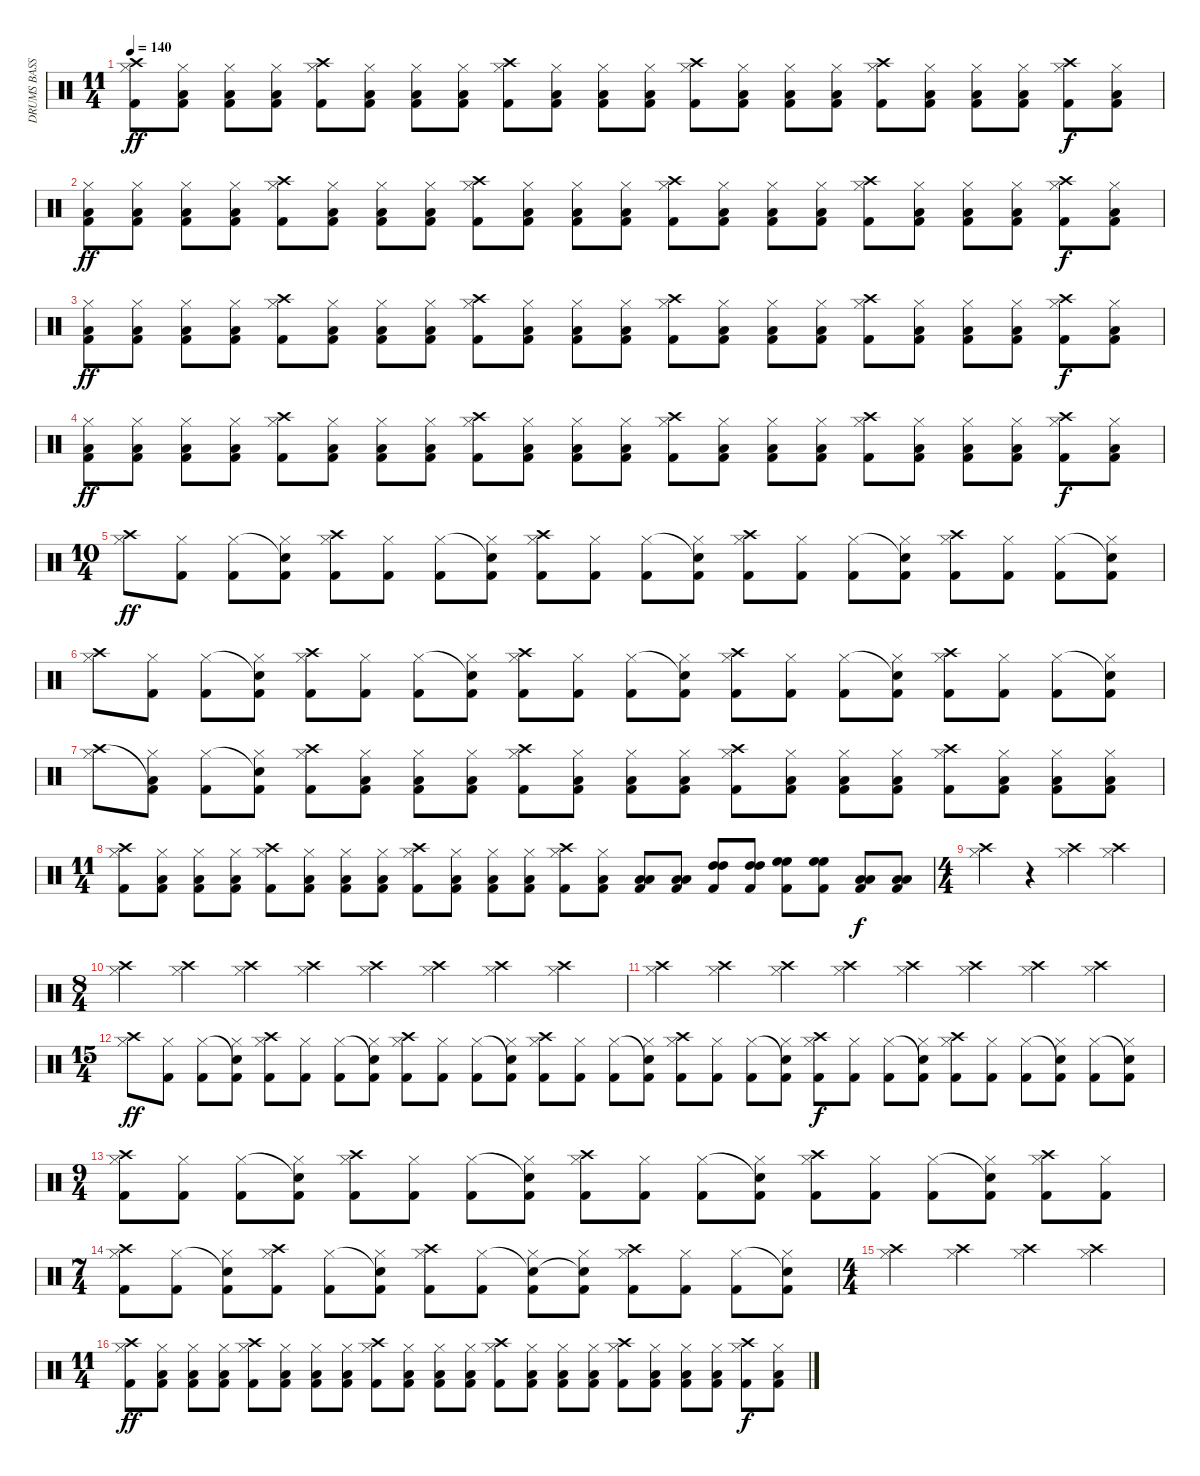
\track ("DRUMS BASS" "DRUMS BASS") {instrument percussion}
\staff {score}
\articulation defaults
\ts (11 4)
\tempo 140
\clef neutral
\ks c
("Crash high (hit)" "Hi-Hat (closed)" "Kick (hit) 2").8{dy ff} ("Low Tom (hit)" "Hi-Hat (closed)" "Kick (hit) 2").8 ("Low Tom (hit)" "Hi-Hat (closed)" "Kick (hit) 2").8 ("Low Tom (hit)" "Hi-Hat (closed)" "Kick (hit) 2").8 ("Crash high (hit)" "Hi-Hat (closed)" "Kick (hit) 2").8 ("Low Tom (hit)" "Hi-Hat (closed)" "Kick (hit) 2").8 ("Low Tom (hit)" "Hi-Hat (closed)" "Kick (hit) 2").8 ("Low Tom (hit)" "Hi-Hat (closed)" "Kick (hit) 2").8 ("Crash high (hit)" "Hi-Hat (closed)" "Kick (hit) 2").8 ("Low Tom (hit)" "Hi-Hat (closed)" "Kick (hit) 2").8 ("Low Tom (hit)" "Hi-Hat (closed)" "Kick (hit) 2").8 ("Low Tom (hit)" "Hi-Hat (closed)" "Kick (hit) 2").8 ("Crash high (hit)" "Hi-Hat (closed)" "Kick (hit) 2").8 ("Low Tom (hit)" "Hi-Hat (closed)" "Kick (hit) 2").8 ("Low Tom (hit)" "Hi-Hat (closed)" "Kick (hit) 2").8 ("Low Tom (hit)" "Hi-Hat (closed)" "Kick (hit) 2").8 ("Crash high (hit)" "Hi-Hat (closed)" "Kick (hit) 2").8 ("Low Tom (hit)" "Hi-Hat (closed)" "Kick (hit) 2").8 ("Low Tom (hit)" "Hi-Hat (closed)" "Kick (hit) 2").8 ("Low Tom (hit)" "Hi-Hat (closed)" "Kick (hit) 2").8 ("Crash high (hit)" "Hi-Hat (closed)" "Kick (hit) 2").8{dy f} ("Low Tom (hit)" "Hi-Hat (closed)" "Kick (hit) 2").8 |
("Low Tom (hit)" "Hi-Hat (closed)" "Kick (hit) 2").8{dy ff} ("Low Tom (hit)" "Hi-Hat (closed)" "Kick (hit) 2").8 ("Low Tom (hit)" "Hi-Hat (closed)" "Kick (hit) 2").8 ("Low Tom (hit)" "Hi-Hat (closed)" "Kick (hit) 2").8 ("Crash high (hit)" "Hi-Hat (closed)" "Kick (hit) 2").8 ("Low Tom (hit)" "Hi-Hat (closed)" "Kick (hit) 2").8 ("Low Tom (hit)" "Hi-Hat (closed)" "Kick (hit) 2").8 ("Low Tom (hit)" "Hi-Hat (closed)" "Kick (hit) 2").8 ("Crash high (hit)" "Hi-Hat (closed)" "Kick (hit) 2").8 ("Low Tom (hit)" "Hi-Hat (closed)" "Kick (hit) 2").8 ("Low Tom (hit)" "Hi-Hat (closed)" "Kick (hit) 2").8 ("Low Tom (hit)" "Hi-Hat (closed)" "Kick (hit) 2").8 ("Crash high (hit)" "Hi-Hat (closed)" "Kick (hit) 2").8 ("Low Tom (hit)" "Hi-Hat (closed)" "Kick (hit) 2").8 ("Low Tom (hit)" "Hi-Hat (closed)" "Kick (hit) 2").8 ("Low Tom (hit)" "Hi-Hat (closed)" "Kick (hit) 2").8 ("Crash high (hit)" "Hi-Hat (closed)" "Kick (hit) 2").8 ("Low Tom (hit)" "Hi-Hat (closed)" "Kick (hit) 2").8 ("Low Tom (hit)" "Hi-Hat (closed)" "Kick (hit) 2").8 ("Low Tom (hit)" "Hi-Hat (closed)" "Kick (hit) 2").8 ("Crash high (hit)" "Hi-Hat (closed)" "Kick (hit) 2").8{dy f} ("Low Tom (hit)" "Hi-Hat (closed)" "Kick (hit) 2").8 |
("Low Tom (hit)" "Hi-Hat (closed)" "Kick (hit) 2").8{dy ff} ("Low Tom (hit)" "Hi-Hat (closed)" "Kick (hit) 2").8 ("Low Tom (hit)" "Hi-Hat (closed)" "Kick (hit) 2").8 ("Low Tom (hit)" "Hi-Hat (closed)" "Kick (hit) 2").8 ("Crash high (hit)" "Hi-Hat (closed)" "Kick (hit) 2").8 ("Low Tom (hit)" "Hi-Hat (closed)" "Kick (hit) 2").8 ("Low Tom (hit)" "Hi-Hat (closed)" "Kick (hit) 2").8 ("Low Tom (hit)" "Hi-Hat (closed)" "Kick (hit) 2").8 ("Crash high (hit)" "Hi-Hat (closed)" "Kick (hit) 2").8 ("Low Tom (hit)" "Hi-Hat (closed)" "Kick (hit) 2").8 ("Low Tom (hit)" "Hi-Hat (closed)" "Kick (hit) 2").8 ("Low Tom (hit)" "Hi-Hat (closed)" "Kick (hit) 2").8 ("Crash high (hit)" "Hi-Hat (closed)" "Kick (hit) 2").8 ("Low Tom (hit)" "Hi-Hat (closed)" "Kick (hit) 2").8 ("Low Tom (hit)" "Hi-Hat (closed)" "Kick (hit) 2").8 ("Low Tom (hit)" "Hi-Hat (closed)" "Kick (hit) 2").8 ("Crash high (hit)" "Hi-Hat (closed)" "Kick (hit) 2").8 ("Low Tom (hit)" "Hi-Hat (closed)" "Kick (hit) 2").8 ("Low Tom (hit)" "Hi-Hat (closed)" "Kick (hit) 2").8 ("Low Tom (hit)" "Hi-Hat (closed)" "Kick (hit) 2").8 ("Crash high (hit)" "Hi-Hat (closed)" "Kick (hit) 2").8{dy f} ("Low Tom (hit)" "Hi-Hat (closed)" "Kick (hit) 2").8 |
("Low Tom (hit)" "Hi-Hat (closed)" "Kick (hit) 2").8{dy ff} ("Low Tom (hit)" "Hi-Hat (closed)" "Kick (hit) 2").8 ("Low Tom (hit)" "Hi-Hat (closed)" "Kick (hit) 2").8 ("Low Tom (hit)" "Hi-Hat (closed)" "Kick (hit) 2").8 ("Crash high (hit)" "Hi-Hat (closed)" "Kick (hit) 2").8 ("Low Tom (hit)" "Hi-Hat (closed)" "Kick (hit) 2").8 ("Low Tom (hit)" "Hi-Hat (closed)" "Kick (hit) 2").8 ("Low Tom (hit)" "Hi-Hat (closed)" "Kick (hit) 2").8 ("Crash high (hit)" "Hi-Hat (closed)" "Kick (hit) 2").8 ("Low Tom (hit)" "Hi-Hat (closed)" "Kick (hit) 2").8 ("Low Tom (hit)" "Hi-Hat (closed)" "Kick (hit) 2").8 ("Low Tom (hit)" "Hi-Hat (closed)" "Kick (hit) 2").8 ("Crash high (hit)" "Hi-Hat (closed)" "Kick (hit) 2").8 ("Low Tom (hit)" "Hi-Hat (closed)" "Kick (hit) 2").8 ("Low Tom (hit)" "Hi-Hat (closed)" "Kick (hit) 2").8 ("Low Tom (hit)" "Hi-Hat (closed)" "Kick (hit) 2").8 ("Crash high (hit)" "Hi-Hat (closed)" "Kick (hit) 2").8 ("Low Tom (hit)" "Hi-Hat (closed)" "Kick (hit) 2").8 ("Low Tom (hit)" "Hi-Hat (closed)" "Kick (hit) 2").8 ("Low Tom (hit)" "Hi-Hat (closed)" "Kick (hit) 2").8 ("Crash high (hit)" "Hi-Hat (closed)" "Kick (hit) 2").8{dy f} ("Low Tom (hit)" "Hi-Hat (closed)" "Kick (hit) 2").8 |
\ts (10 4)
("Crash high (hit)" "Hi-Hat (closed)").8{dy ff} ("Hi-Hat (closed)" "Kick (hit) 2").8 ("Hi-Hat (closed)" "Kick (hit) 2").8 ("Snare (hit)"{t} "Hi-Hat (closed)" "Kick (hit) 2").8 ("Crash high (hit)" "Hi-Hat (closed)" "Kick (hit) 2").8 ("Hi-Hat (closed)" "Kick (hit) 2").8 ("Hi-Hat (closed)" "Kick (hit) 2").8 ("Snare (hit)"{t} "Hi-Hat (closed)" "Kick (hit) 2").8 ("Crash high (hit)" "Hi-Hat (closed)" "Kick (hit) 2").8 ("Hi-Hat (closed)" "Kick (hit) 2").8 ("Hi-Hat (closed)" "Kick (hit) 2").8 ("Snare (hit)"{t} "Hi-Hat (closed)" "Kick (hit) 2").8 ("Crash high (hit)" "Hi-Hat (closed)" "Kick (hit) 2").8 ("Hi-Hat (closed)" "Kick (hit) 2").8 ("Hi-Hat (closed)" "Kick (hit) 2").8 ("Snare (hit)"{t} "Hi-Hat (closed)" "Kick (hit) 2").8 ("Crash high (hit)" "Hi-Hat (closed)" "Kick (hit) 2").8 ("Hi-Hat (closed)" "Kick (hit) 2").8 ("Hi-Hat (closed)" "Kick (hit) 2").8 ("Snare (hit)"{t} "Hi-Hat (closed)" "Kick (hit) 2").8 |
("Crash high (hit)" "Hi-Hat (closed)").8 ("Hi-Hat (closed)" "Kick (hit) 2").8 ("Hi-Hat (closed)" "Kick (hit) 2").8 ("Snare (hit)"{t} "Hi-Hat (closed)" "Kick (hit) 2").8 ("Crash high (hit)" "Hi-Hat (closed)" "Kick (hit) 2").8 ("Hi-Hat (closed)" "Kick (hit) 2").8 ("Hi-Hat (closed)" "Kick (hit) 2").8 ("Snare (hit)"{t} "Hi-Hat (closed)" "Kick (hit) 2").8 ("Crash high (hit)" "Hi-Hat (closed)" "Kick (hit) 2").8 ("Hi-Hat (closed)" "Kick (hit) 2").8 ("Hi-Hat (closed)" "Kick (hit) 2").8 ("Snare (hit)"{t} "Hi-Hat (closed)" "Kick (hit) 2").8 ("Crash high (hit)" "Hi-Hat (closed)" "Kick (hit) 2").8 ("Hi-Hat (closed)" "Kick (hit) 2").8 ("Hi-Hat (closed)" "Kick (hit) 2").8 ("Snare (hit)"{t} "Hi-Hat (closed)" "Kick (hit) 2").8 ("Crash high (hit)" "Hi-Hat (closed)" "Kick (hit) 2").8 ("Hi-Hat (closed)" "Kick (hit) 2").8 ("Hi-Hat (closed)" "Kick (hit) 2").8 ("Snare (hit)"{t} "Hi-Hat (closed)" "Kick (hit) 2").8 |
("Crash high (hit)" "Hi-Hat (closed)").8 ("Low Tom (hit)"{t} "Hi-Hat (closed)" "Kick (hit) 2").8 ("Hi-Hat (closed)" "Kick (hit) 2").8 ("Snare (hit)"{t} "Hi-Hat (closed)" "Kick (hit) 2").8 ("Crash high (hit)" "Hi-Hat (closed)" "Kick (hit) 2").8 ("Low Tom (hit)" "Hi-Hat (closed)" "Kick (hit) 2").8 ("Low Tom (hit)" "Hi-Hat (closed)" "Kick (hit) 2").8 ("Low Tom (hit)" "Hi-Hat (closed)" "Kick (hit) 2").8 ("Crash high (hit)" "Hi-Hat (closed)" "Kick (hit) 2").8 ("Low Tom (hit)" "Hi-Hat (closed)" "Kick (hit) 2").8 ("Low Tom (hit)" "Hi-Hat (closed)" "Kick (hit) 2").8 ("Low Tom (hit)" "Hi-Hat (closed)" "Kick (hit) 2").8 ("Crash high (hit)" "Hi-Hat (closed)" "Kick (hit) 2").8 ("Low Tom (hit)" "Hi-Hat (closed)" "Kick (hit) 2").8 ("Low Tom (hit)" "Hi-Hat (closed)" "Kick (hit) 2").8 ("Low Tom (hit)" "Hi-Hat (closed)" "Kick (hit) 2").8 ("Crash high (hit)" "Hi-Hat (closed)" "Kick (hit) 2").8 ("Low Tom (hit)" "Hi-Hat (closed)" "Kick (hit) 2").8 ("Low Tom (hit)" "Hi-Hat (closed)" "Kick (hit) 2").8 ("Low Tom (hit)" "Hi-Hat (closed)" "Kick (hit) 2").8 |
\ts (11 4)
("Crash high (hit)" "Hi-Hat (closed)" "Kick (hit) 2").8 ("Low Tom (hit)" "Hi-Hat (closed)" "Kick (hit) 2").8 ("Low Tom (hit)" "Hi-Hat (closed)" "Kick (hit) 2").8 ("Low Tom (hit)" "Hi-Hat (closed)" "Kick (hit) 2").8 ("Crash high (hit)" "Hi-Hat (closed)" "Kick (hit) 2").8 ("Low Tom (hit)" "Hi-Hat (closed)" "Kick (hit) 2").8 ("Low Tom (hit)" "Hi-Hat (closed)" "Kick (hit) 2").8 ("Low Tom (hit)" "Hi-Hat (closed)" "Kick (hit) 2").8 ("Crash high (hit)" "Hi-Hat (closed)" "Kick (hit) 2").8 ("Low Tom (hit)" "Hi-Hat (closed)" "Kick (hit) 2").8 ("Low Tom (hit)" "Hi-Hat (closed)" "Kick (hit) 2").8 ("Low Tom (hit)" "Hi-Hat (closed)" "Kick (hit) 2").8 ("Crash high (hit)" "Hi-Hat (closed)" "Kick (hit) 2").8 ("Low Tom (hit)" "Hi-Hat (closed)" "Kick (hit) 2").8 ("Low Tom (hit)" "Low Tom (hit)" "Kick (hit) 2").8 ("Low Tom (hit)" "Low Tom (hit)" "Kick (hit) 2").8 ("High Tom (hit)" "High Tom (hit)" "Kick (hit) 2").8 ("High Tom (hit)" "High Tom (hit)" "Kick (hit) 2").8 ("High Floor Tom (hit)" "High Floor Tom (hit)" "Kick (hit) 2").8 ("High Floor Tom (hit)" "High Floor Tom (hit)" "Kick (hit) 2").8 ("Low Tom (hit)" "Low Tom (hit)" "Kick (hit) 2").8{dy f} ("Low Tom (hit)" "Low Tom (hit)" "Kick (hit) 2").8 |
\ts (4 4)
("Crash high (hit)" "Hi-Hat (closed)").4 r.4 ("Crash high (hit)" "Hi-Hat (closed)").4 ("Crash high (hit)" "Hi-Hat (closed)").4 |
\ts (8 4)
("Crash high (hit)" "Hi-Hat (closed)").4 ("Crash high (hit)" "Hi-Hat (closed)").4 ("Crash high (hit)" "Hi-Hat (closed)").4 ("Crash high (hit)" "Hi-Hat (closed)").4 ("Crash high (hit)" "Hi-Hat (closed)").4 ("Crash high (hit)" "Hi-Hat (closed)").4 ("Crash high (hit)" "Hi-Hat (closed)").4 ("Crash high (hit)" "Hi-Hat (closed)").4 |
("Crash high (hit)" "Hi-Hat (closed)").4 ("Crash high (hit)" "Hi-Hat (closed)").4 ("Crash high (hit)" "Hi-Hat (closed)").4 ("Crash high (hit)" "Hi-Hat (closed)").4 ("Crash high (hit)" "Hi-Hat (closed)").4 ("Crash high (hit)" "Hi-Hat (closed)").4 ("Crash high (hit)" "Hi-Hat (closed)").4 ("Crash high (hit)" "Hi-Hat (closed)").4 |
\ts (15 4)
("Crash high (hit)" "Hi-Hat (closed)").8{dy ff} ("Hi-Hat (closed)" "Kick (hit) 2").8 ("Hi-Hat (closed)" "Kick (hit) 2").8 ("Snare (hit)"{t} "Hi-Hat (closed)" "Kick (hit) 2").8 ("Crash high (hit)" "Hi-Hat (closed)" "Kick (hit) 2").8 ("Hi-Hat (closed)" "Kick (hit) 2").8 ("Hi-Hat (closed)" "Kick (hit) 2").8 ("Snare (hit)"{t} "Hi-Hat (closed)" "Kick (hit) 2").8 ("Crash high (hit)" "Hi-Hat (closed)" "Kick (hit) 2").8 ("Hi-Hat (closed)" "Kick (hit) 2").8 ("Hi-Hat (closed)" "Kick (hit) 2").8 ("Snare (hit)"{t} "Hi-Hat (closed)" "Kick (hit) 2").8 ("Crash high (hit)" "Hi-Hat (closed)" "Kick (hit) 2").8 ("Hi-Hat (closed)" "Kick (hit) 2").8 ("Hi-Hat (closed)" "Kick (hit) 2").8 ("Snare (hit)"{t} "Hi-Hat (closed)" "Kick (hit) 2").8 ("Crash high (hit)" "Hi-Hat (closed)" "Kick (hit) 2").8 ("Hi-Hat (closed)" "Kick (hit) 2").8 ("Hi-Hat (closed)" "Kick (hit) 2").8 ("Snare (hit)"{t} "Hi-Hat (closed)" "Kick (hit) 2").8 ("Crash high (hit)" "Hi-Hat (closed)" "Kick (hit) 2").8{dy f} ("Hi-Hat (closed)" "Kick (hit) 2").8 ("Hi-Hat (closed)" "Kick (hit) 2").8 ("Snare (hit)"{t} "Hi-Hat (closed)" "Kick (hit) 2").8 ("Crash high (hit)" "Hi-Hat (closed)" "Kick (hit) 2").8 ("Hi-Hat (closed)" "Kick (hit) 2").8 ("Hi-Hat (closed)" "Kick (hit) 2").8 ("Snare (hit)"{t} "Hi-Hat (closed)" "Kick (hit) 2").8 ("Hi-Hat (closed)" "Kick (hit) 2").8 ("Snare (hit)"{t} "Hi-Hat (closed)" "Kick (hit) 2").8 |
\ts (9 4)
("Crash high (hit)" "Hi-Hat (closed)" "Kick (hit) 2").8 ("Hi-Hat (closed)" "Kick (hit) 2").8 ("Hi-Hat (closed)" "Kick (hit) 2").8 ("Snare (hit)"{t} "Hi-Hat (closed)" "Kick (hit) 2").8 ("Crash high (hit)" "Hi-Hat (closed)" "Kick (hit) 2").8 ("Hi-Hat (closed)" "Kick (hit) 2").8 ("Hi-Hat (closed)" "Kick (hit) 2").8 ("Snare (hit)"{t} "Hi-Hat (closed)" "Kick (hit) 2").8 ("Crash high (hit)" "Hi-Hat (closed)" "Kick (hit) 2").8 ("Hi-Hat (closed)" "Kick (hit) 2").8 ("Hi-Hat (closed)" "Kick (hit) 2").8 ("Snare (hit)"{t} "Hi-Hat (closed)" "Kick (hit) 2").8 ("Crash high (hit)" "Hi-Hat (closed)" "Kick (hit) 2").8 ("Hi-Hat (closed)" "Kick (hit) 2").8 ("Hi-Hat (closed)" "Kick (hit) 2").8 ("Snare (hit)"{t} "Hi-Hat (closed)" "Kick (hit) 2").8 ("Crash high (hit)" "Hi-Hat (closed)" "Kick (hit) 2").8 ("Hi-Hat (closed)" "Kick (hit) 2").8 |
\ts (7 4)
("Crash high (hit)" "Hi-Hat (closed)" "Kick (hit) 2").8 ("Hi-Hat (closed)" "Kick (hit) 2").8 ("Snare (hit)"{t} "Hi-Hat (closed)" "Kick (hit) 2").8 ("Crash high (hit)" "Hi-Hat (closed)" "Kick (hit) 2").8 ("Hi-Hat (closed)" "Kick (hit) 2").8 ("Snare (hit)"{t} "Hi-Hat (closed)" "Kick (hit) 2").8 ("Crash high (hit)" "Hi-Hat (closed)" "Kick (hit) 2").8 ("Hi-Hat (closed)" "Kick (hit) 2").8 ("Snare (hit)"{t} "Hi-Hat (closed)" "Kick (hit) 2").8 ("Snare (hit)"{t} "Hi-Hat (closed)" "Kick (hit) 2").8 ("Crash high (hit)" "Hi-Hat (closed)" "Kick (hit) 2").8 ("Hi-Hat (closed)" "Kick (hit) 2").8 ("Hi-Hat (closed)" "Kick (hit) 2").8 ("Snare (hit)"{t} "Hi-Hat (closed)" "Kick (hit) 2").8 |
\ts (4 4)
("Crash high (hit)" "Hi-Hat (closed)").4 ("Crash high (hit)" "Hi-Hat (closed)").4 ("Crash high (hit)" "Hi-Hat (closed)").4 ("Crash high (hit)" "Hi-Hat (closed)").4 |
\ts (11 4)
("Crash high (hit)" "Hi-Hat (closed)" "Kick (hit) 2").8{dy ff} ("Low Tom (hit)" "Hi-Hat (closed)" "Kick (hit) 2").8 ("Low Tom (hit)" "Hi-Hat (closed)" "Kick (hit) 2").8 ("Low Tom (hit)" "Hi-Hat (closed)" "Kick (hit) 2").8 ("Crash high (hit)" "Hi-Hat (closed)" "Kick (hit) 2").8 ("Low Tom (hit)" "Hi-Hat (closed)" "Kick (hit) 2").8 ("Low Tom (hit)" "Hi-Hat (closed)" "Kick (hit) 2").8 ("Low Tom (hit)" "Hi-Hat (closed)" "Kick (hit) 2").8 ("Crash high (hit)" "Hi-Hat (closed)" "Kick (hit) 2").8 ("Low Tom (hit)" "Hi-Hat (closed)" "Kick (hit) 2").8 ("Low Tom (hit)" "Hi-Hat (closed)" "Kick (hit) 2").8 ("Low Tom (hit)" "Hi-Hat (closed)" "Kick (hit) 2").8 ("Crash high (hit)" "Hi-Hat (closed)" "Kick (hit) 2").8 ("Low Tom (hit)" "Hi-Hat (closed)" "Kick (hit) 2").8 ("Low Tom (hit)" "Hi-Hat (closed)" "Kick (hit) 2").8 ("Low Tom (hit)" "Hi-Hat (closed)" "Kick (hit) 2").8 ("Crash high (hit)" "Hi-Hat (closed)" "Kick (hit) 2").8 ("Low Tom (hit)" "Hi-Hat (closed)" "Kick (hit) 2").8 ("Low Tom (hit)" "Hi-Hat (closed)" "Kick (hit) 2").8 ("Low Tom (hit)" "Hi-Hat (closed)" "Kick (hit) 2").8 ("Crash high (hit)" "Hi-Hat (closed)" "Kick (hit) 2").8{dy f} ("Low Tom (hit)" "Hi-Hat (closed)" "Kick (hit) 2").8
